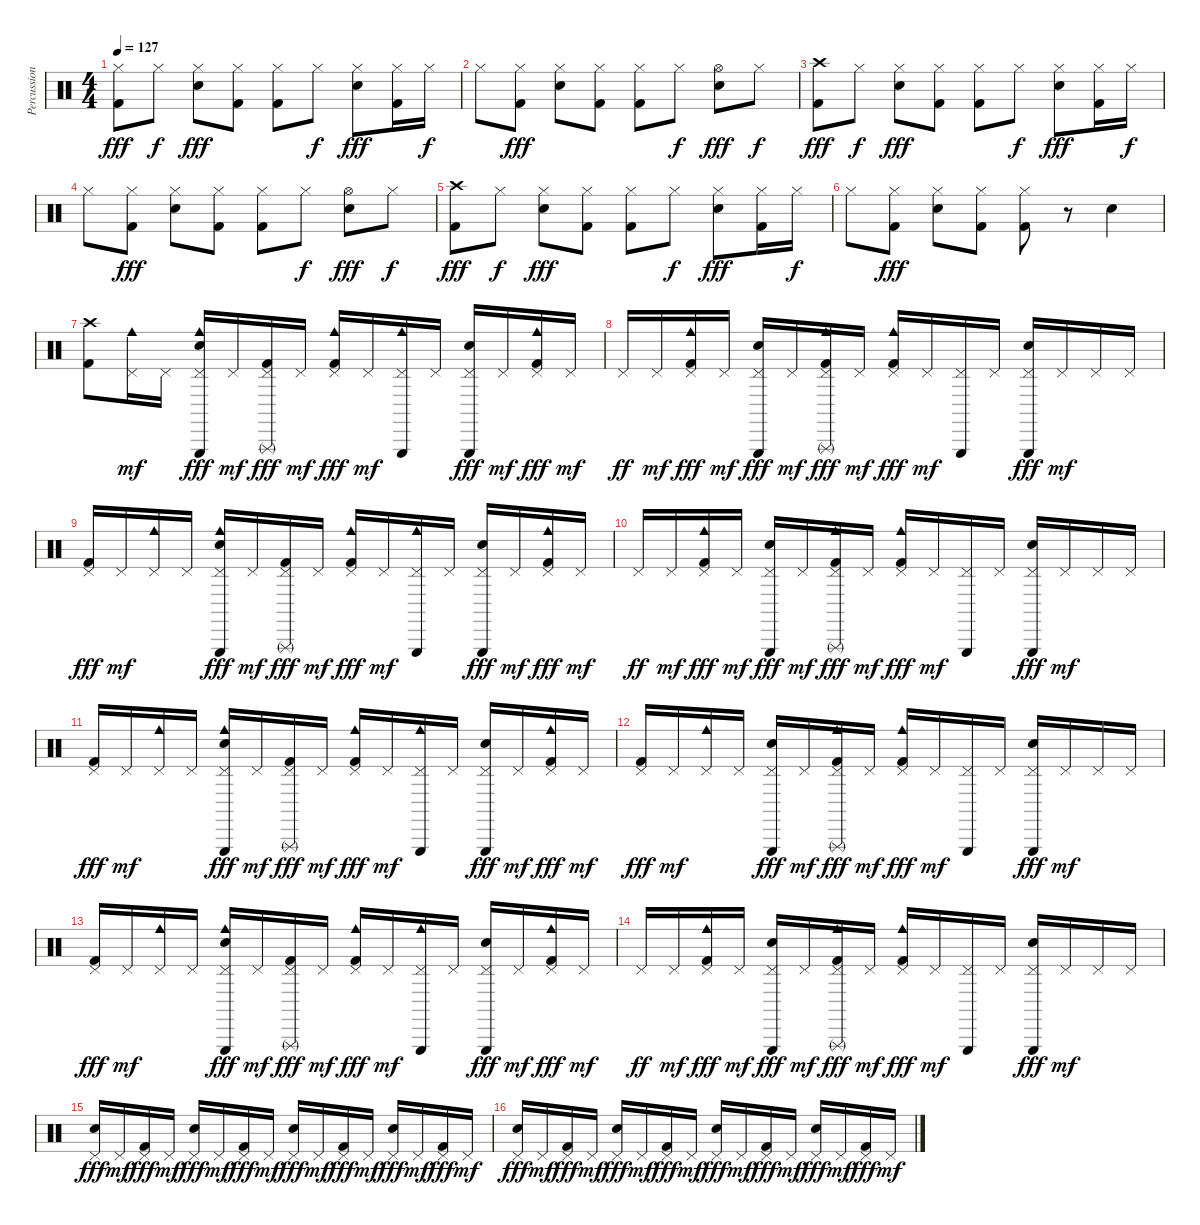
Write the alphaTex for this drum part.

\track ("Percussion" "Percussion") {instrument percussion}
\staff {score}
\articulation defaults
\ts (4 4)
\tempo 127
\clef neutral
\ks c
("Hi-Hat (closed)" "Kick (hit) 2").8{dy fff} "Hi-Hat (closed)".8{dy f} ("Hi-Hat (closed)" "Electric Snare (hit)").8{dy fff} ("Hi-Hat (closed)" "Kick (hit) 2").8 ("Hi-Hat (closed)" "Kick (hit) 2").8 "Hi-Hat (closed)".8{dy f} ("Hi-Hat (closed)" "Electric Snare (hit)").8{dy fff} ("Hi-Hat (closed)" "Kick (hit) 2").16 "Hi-Hat (closed)".16{dy f} |
"Hi-Hat (closed)".8 ("Hi-Hat (closed)" "Kick (hit) 2").8{dy fff} ("Hi-Hat (closed)" "Electric Snare (hit)").8 ("Hi-Hat (closed)" "Kick (hit) 2").8 ("Hi-Hat (closed)" "Kick (hit) 2").8 "Hi-Hat (closed)".8{dy f} ("Hi-Hat (open)" "Electric Snare (hit)").8{dy fff} "Hi-Hat (closed)".8{dy f} |
("Crash high (hit)" "Kick (hit) 2").8{dy fff} "Hi-Hat (closed)".8{dy f} ("Hi-Hat (closed)" "Electric Snare (hit)").8{dy fff} ("Hi-Hat (closed)" "Kick (hit) 2").8 ("Hi-Hat (closed)" "Kick (hit) 2").8 "Hi-Hat (closed)".8{dy f} ("Hi-Hat (closed)" "Electric Snare (hit)").8{dy fff} ("Hi-Hat (closed)" "Kick (hit) 2").16 "Hi-Hat (closed)".16{dy f} |
"Hi-Hat (closed)".8 ("Hi-Hat (closed)" "Kick (hit) 2").8{dy fff} ("Hi-Hat (closed)" "Electric Snare (hit)").8 ("Hi-Hat (closed)" "Kick (hit) 2").8 ("Hi-Hat (closed)" "Kick (hit) 2").8 "Hi-Hat (closed)".8{dy f} ("Hi-Hat (open)" "Electric Snare (hit)").8{dy fff} "Hi-Hat (closed)".8{dy f} |
("Crash high (hit)" "Kick (hit) 2").8{dy fff} "Hi-Hat (closed)".8{dy f} ("Hi-Hat (closed)" "Electric Snare (hit)").8{dy fff} ("Hi-Hat (closed)" "Kick (hit) 2").8 ("Hi-Hat (closed)" "Kick (hit) 2").8 "Hi-Hat (closed)".8{dy f} ("Hi-Hat (closed)" "Electric Snare (hit)").8{dy fff} ("Hi-Hat (closed)" "Kick (hit) 2").16 "Hi-Hat (closed)".16{dy f} |
"Hi-Hat (closed)".8 ("Hi-Hat (closed)" "Kick (hit) 2").8{dy fff} ("Hi-Hat (closed)" "Electric Snare (hit)").8 ("Hi-Hat (closed)" "Kick (hit) 2").8 ("Hi-Hat (closed)" "Kick (hit) 2").8 r.8 "Electric Snare (hit)".4 |
("Crash high (hit)" "Kick (hit) 2").8 ("Pedal Hi-Hat (hit)" "Cowbell medium (hit)").16{dy mf} "Pedal Hi-Hat (hit)".16 ("Pedal Hi-Hat (hit)" "Triangle (hit)" "Electric Snare (hit)" "Cowbell medium (hit)").16{dy fff} "Pedal Hi-Hat (hit)".16{dy mf} ("Pedal Hi-Hat (hit)" "Triangle (rnute)" "Kick (hit) 2").16{dy fff} "Pedal Hi-Hat (hit)".16{dy mf} ("Pedal Hi-Hat (hit)" "Cowbell medium (hit)" "Kick (hit) 2").16{dy fff} "Pedal Hi-Hat (hit)".16{dy mf} ("Pedal Hi-Hat (hit)" "Triangle (hit)" "Cowbell medium (hit)").16 "Pedal Hi-Hat (hit)".16 ("Pedal Hi-Hat (hit)" "Triangle (hit)" "Electric Snare (hit)").16{dy fff} "Pedal Hi-Hat (hit)".16{dy mf} ("Pedal Hi-Hat (hit)" "Cowbell medium (hit)" "Kick (hit) 2").16{dy fff} "Pedal Hi-Hat (hit)".16{dy mf} |
"Pedal Hi-Hat (hit)".16{dy ff} "Pedal Hi-Hat (hit)".16{dy mf} ("Pedal Hi-Hat (hit)" "Cowbell medium (hit)" "Kick (hit) 2").16{dy fff} "Pedal Hi-Hat (hit)".16{dy mf} ("Pedal Hi-Hat (hit)" "Triangle (hit)" "Electric Snare (hit)").16{dy fff} "Pedal Hi-Hat (hit)".16{dy mf} ("Pedal Hi-Hat (hit)" "Triangle (rnute)" "Cowbell medium (hit)" "Kick (hit) 2").16{dy fff} "Pedal Hi-Hat (hit)".16{dy mf} ("Pedal Hi-Hat (hit)" "Cowbell medium (hit)" "Kick (hit) 2").16{dy fff} "Pedal Hi-Hat (hit)".16{dy mf} ("Pedal Hi-Hat (hit)" "Triangle (hit)").16 "Pedal Hi-Hat (hit)".16 ("Pedal Hi-Hat (hit)" "Triangle (hit)" "Electric Snare (hit)").16{dy fff} "Pedal Hi-Hat (hit)".16{dy mf} "Pedal Hi-Hat (hit)".16 "Pedal Hi-Hat (hit)".16 |
("Pedal Hi-Hat (hit)" "Kick (hit) 2").16{dy fff} "Pedal Hi-Hat (hit)".16{dy mf} ("Pedal Hi-Hat (hit)" "Cowbell medium (hit)").16 "Pedal Hi-Hat (hit)".16 ("Pedal Hi-Hat (hit)" "Triangle (hit)" "Electric Snare (hit)" "Cowbell medium (hit)").16{dy fff} "Pedal Hi-Hat (hit)".16{dy mf} ("Pedal Hi-Hat (hit)" "Triangle (rnute)" "Kick (hit) 2").16{dy fff} "Pedal Hi-Hat (hit)".16{dy mf} ("Pedal Hi-Hat (hit)" "Cowbell medium (hit)" "Kick (hit) 2").16{dy fff} "Pedal Hi-Hat (hit)".16{dy mf} ("Pedal Hi-Hat (hit)" "Triangle (hit)" "Cowbell medium (hit)").16 "Pedal Hi-Hat (hit)".16 ("Pedal Hi-Hat (hit)" "Triangle (hit)" "Electric Snare (hit)").16{dy fff} "Pedal Hi-Hat (hit)".16{dy mf} ("Pedal Hi-Hat (hit)" "Cowbell medium (hit)" "Kick (hit) 2").16{dy fff} "Pedal Hi-Hat (hit)".16{dy mf} |
"Pedal Hi-Hat (hit)".16{dy ff} "Pedal Hi-Hat (hit)".16{dy mf} ("Pedal Hi-Hat (hit)" "Cowbell medium (hit)" "Kick (hit) 2").16{dy fff} "Pedal Hi-Hat (hit)".16{dy mf} ("Pedal Hi-Hat (hit)" "Triangle (hit)" "Electric Snare (hit)").16{dy fff} "Pedal Hi-Hat (hit)".16{dy mf} ("Pedal Hi-Hat (hit)" "Triangle (rnute)" "Cowbell medium (hit)" "Kick (hit) 2").16{dy fff} "Pedal Hi-Hat (hit)".16{dy mf} ("Pedal Hi-Hat (hit)" "Cowbell medium (hit)" "Kick (hit) 2").16{dy fff} "Pedal Hi-Hat (hit)".16{dy mf} ("Pedal Hi-Hat (hit)" "Triangle (hit)").16 "Pedal Hi-Hat (hit)".16 ("Pedal Hi-Hat (hit)" "Triangle (hit)" "Electric Snare (hit)").16{dy fff} "Pedal Hi-Hat (hit)".16{dy mf} "Pedal Hi-Hat (hit)".16 "Pedal Hi-Hat (hit)".16 |
("Pedal Hi-Hat (hit)" "Kick (hit) 2").16{dy fff} "Pedal Hi-Hat (hit)".16{dy mf} ("Pedal Hi-Hat (hit)" "Cowbell medium (hit)").16 "Pedal Hi-Hat (hit)".16 ("Pedal Hi-Hat (hit)" "Triangle (hit)" "Electric Snare (hit)" "Cowbell medium (hit)").16{dy fff} "Pedal Hi-Hat (hit)".16{dy mf} ("Pedal Hi-Hat (hit)" "Triangle (rnute)" "Kick (hit) 2").16{dy fff} "Pedal Hi-Hat (hit)".16{dy mf} ("Pedal Hi-Hat (hit)" "Cowbell medium (hit)" "Kick (hit) 2").16{dy fff} "Pedal Hi-Hat (hit)".16{dy mf} ("Pedal Hi-Hat (hit)" "Triangle (hit)" "Cowbell medium (hit)").16 "Pedal Hi-Hat (hit)".16 ("Pedal Hi-Hat (hit)" "Triangle (hit)" "Electric Snare (hit)").16{dy fff} "Pedal Hi-Hat (hit)".16{dy mf} ("Pedal Hi-Hat (hit)" "Cowbell medium (hit)" "Kick (hit) 2").16{dy fff} "Pedal Hi-Hat (hit)".16{dy mf} |
("Pedal Hi-Hat (hit)" "Kick (hit) 2").16{dy fff} "Pedal Hi-Hat (hit)".16{dy mf} ("Pedal Hi-Hat (hit)" "Cowbell medium (hit)").16 "Pedal Hi-Hat (hit)".16 ("Pedal Hi-Hat (hit)" "Triangle (hit)" "Electric Snare (hit)").16{dy fff} "Pedal Hi-Hat (hit)".16{dy mf} ("Pedal Hi-Hat (hit)" "Triangle (rnute)" "Cowbell medium (hit)" "Kick (hit) 2").16{dy fff} "Pedal Hi-Hat (hit)".16{dy mf} ("Pedal Hi-Hat (hit)" "Cowbell medium (hit)" "Kick (hit) 2").16{dy fff} "Pedal Hi-Hat (hit)".16{dy mf} ("Pedal Hi-Hat (hit)" "Triangle (hit)").16 "Pedal Hi-Hat (hit)".16 ("Pedal Hi-Hat (hit)" "Triangle (hit)" "Electric Snare (hit)").16{dy fff} "Pedal Hi-Hat (hit)".16{dy mf} "Pedal Hi-Hat (hit)".16 "Pedal Hi-Hat (hit)".16 |
("Pedal Hi-Hat (hit)" "Kick (hit) 2").16{dy fff} "Pedal Hi-Hat (hit)".16{dy mf} ("Pedal Hi-Hat (hit)" "Cowbell medium (hit)").16 "Pedal Hi-Hat (hit)".16 ("Pedal Hi-Hat (hit)" "Triangle (hit)" "Electric Snare (hit)" "Cowbell medium (hit)").16{dy fff} "Pedal Hi-Hat (hit)".16{dy mf} ("Pedal Hi-Hat (hit)" "Triangle (rnute)" "Kick (hit) 2").16{dy fff} "Pedal Hi-Hat (hit)".16{dy mf} ("Pedal Hi-Hat (hit)" "Cowbell medium (hit)" "Kick (hit) 2").16{dy fff} "Pedal Hi-Hat (hit)".16{dy mf} ("Pedal Hi-Hat (hit)" "Triangle (hit)" "Cowbell medium (hit)").16 "Pedal Hi-Hat (hit)".16 ("Pedal Hi-Hat (hit)" "Triangle (hit)" "Electric Snare (hit)").16{dy fff} "Pedal Hi-Hat (hit)".16{dy mf} ("Pedal Hi-Hat (hit)" "Cowbell medium (hit)" "Kick (hit) 2").16{dy fff} "Pedal Hi-Hat (hit)".16{dy mf} |
"Pedal Hi-Hat (hit)".16{dy ff} "Pedal Hi-Hat (hit)".16{dy mf} ("Pedal Hi-Hat (hit)" "Cowbell medium (hit)" "Kick (hit) 2").16{dy fff} "Pedal Hi-Hat (hit)".16{dy mf} ("Pedal Hi-Hat (hit)" "Triangle (hit)" "Electric Snare (hit)").16{dy fff} "Pedal Hi-Hat (hit)".16{dy mf} ("Pedal Hi-Hat (hit)" "Triangle (rnute)" "Cowbell medium (hit)" "Kick (hit) 2").16{dy fff} "Pedal Hi-Hat (hit)".16{dy mf} ("Pedal Hi-Hat (hit)" "Cowbell medium (hit)" "Kick (hit) 2").16{dy fff} "Pedal Hi-Hat (hit)".16{dy mf} ("Pedal Hi-Hat (hit)" "Triangle (hit)").16 "Pedal Hi-Hat (hit)".16 ("Pedal Hi-Hat (hit)" "Triangle (hit)" "Electric Snare (hit)").16{dy fff} "Pedal Hi-Hat (hit)".16{dy mf} "Pedal Hi-Hat (hit)".16 "Pedal Hi-Hat (hit)".16 |
("Pedal Hi-Hat (hit)" "Electric Snare (hit)").16{dy fff} "Pedal Hi-Hat (hit)".16{dy mf} ("Pedal Hi-Hat (hit)" "Kick (hit) 2").16{dy fff} "Pedal Hi-Hat (hit)".16{dy mf} ("Pedal Hi-Hat (hit)" "Electric Snare (hit)").16{dy fff} "Pedal Hi-Hat (hit)".16{dy mf} ("Pedal Hi-Hat (hit)" "Kick (hit) 2").16{dy fff} "Pedal Hi-Hat (hit)".16{dy mf} ("Pedal Hi-Hat (hit)" "Electric Snare (hit)").16{dy fff} "Pedal Hi-Hat (hit)".16{dy mf} ("Pedal Hi-Hat (hit)" "Kick (hit) 2").16{dy fff} "Pedal Hi-Hat (hit)".16{dy mf} ("Pedal Hi-Hat (hit)" "Electric Snare (hit)").16{dy fff} "Pedal Hi-Hat (hit)".16{dy mf} ("Pedal Hi-Hat (hit)" "Kick (hit) 2").16{dy fff} "Pedal Hi-Hat (hit)".16{dy mf} |
("Pedal Hi-Hat (hit)" "Electric Snare (hit)").16{dy fff} "Pedal Hi-Hat (hit)".16{dy mf} ("Pedal Hi-Hat (hit)" "Kick (hit) 2").16{dy fff} "Pedal Hi-Hat (hit)".16{dy mf} ("Pedal Hi-Hat (hit)" "Electric Snare (hit)").16{dy fff} "Pedal Hi-Hat (hit)".16{dy mf} ("Pedal Hi-Hat (hit)" "Kick (hit) 2").16{dy fff} "Pedal Hi-Hat (hit)".16{dy mf} ("Pedal Hi-Hat (hit)" "Electric Snare (hit)").16{dy fff} "Pedal Hi-Hat (hit)".16{dy mf} ("Pedal Hi-Hat (hit)" "Kick (hit) 2").16{dy fff} "Pedal Hi-Hat (hit)".16{dy mf} ("Pedal Hi-Hat (hit)" "Electric Snare (hit)").16{dy fff} "Pedal Hi-Hat (hit)".16{dy mf} ("Pedal Hi-Hat (hit)" "Kick (hit) 2").16{dy fff} "Pedal Hi-Hat (hit)".16{dy mf}
